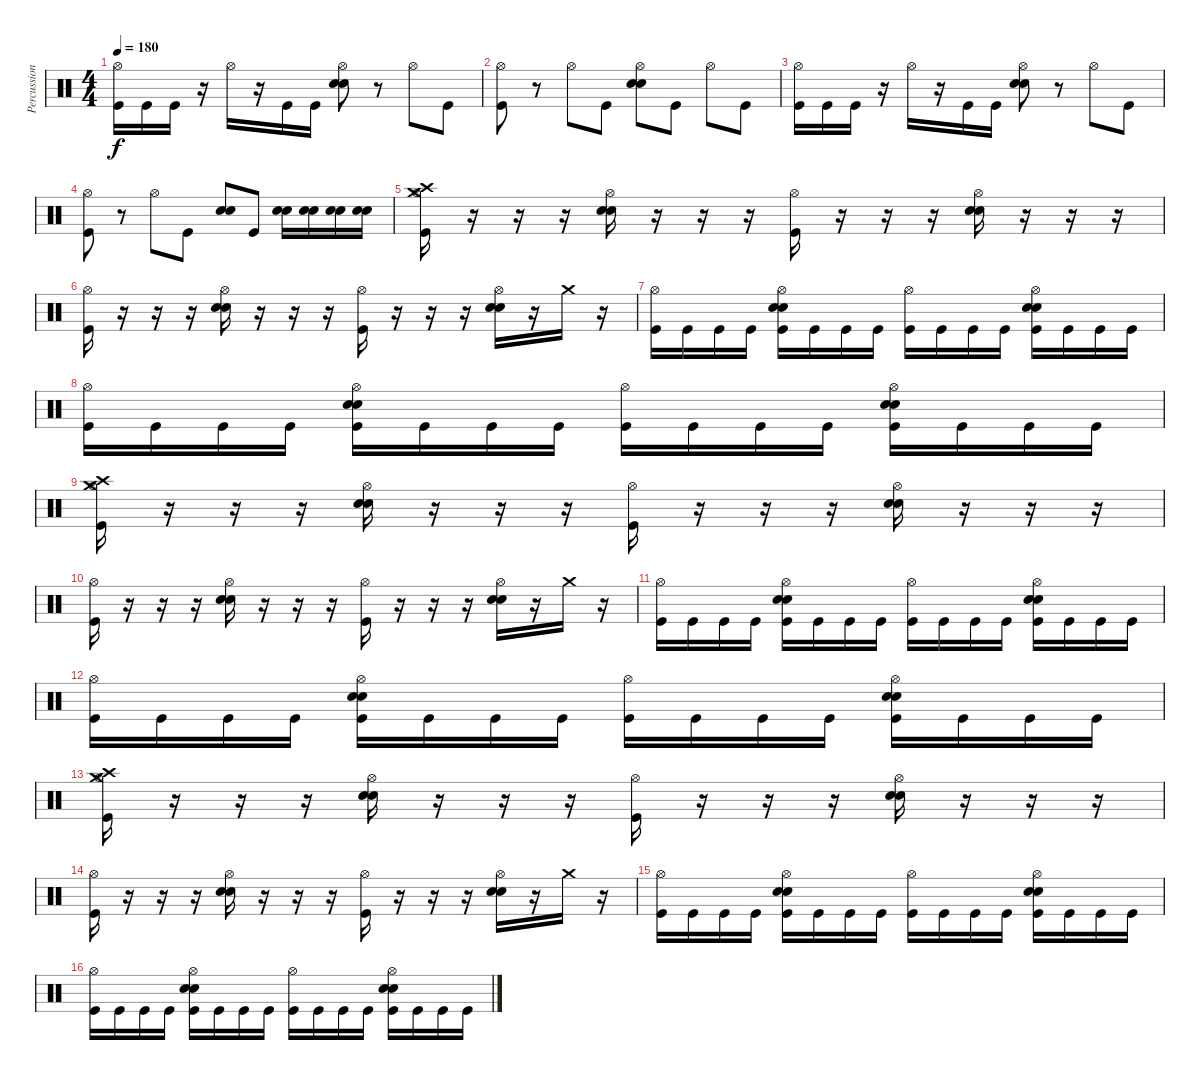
\track ("Percussion" "Percussion") {instrument percussion}
\staff {score}
\articulation defaults
\ts (4 4)
\tempo 180
\clef neutral
\ks c
("Hi-Hat (open)" "Kick (hit)").16{dy f} "Kick (hit)".16 "Kick (hit)".16 r.16 "Hi-Hat (open)".16 r.16 "Kick (hit)".16 "Kick (hit)".16 ("Hi-Hat (open)" "Snare (hit) 2" "Electric Snare (hit)").8 r.8 "Hi-Hat (open)".8 "Kick (hit)".8 |
("Hi-Hat (open)" "Kick (hit)").8 r.8 "Hi-Hat (open)".8 "Kick (hit)".8 ("Hi-Hat (open)" "Snare (hit) 2" "Electric Snare (hit)").8 "Kick (hit)".8 "Hi-Hat (open)".8 "Kick (hit)".8 |
("Hi-Hat (open)" "Kick (hit)").16 "Kick (hit)".16 "Kick (hit)".16 r.16 "Hi-Hat (open)".16 r.16 "Kick (hit)".16 "Kick (hit)".16 ("Hi-Hat (open)" "Snare (hit) 2" "Electric Snare (hit)").8 r.8 "Hi-Hat (open)".8 "Kick (hit)".8 |
("Hi-Hat (open)" "Kick (hit)").8 r.8 "Hi-Hat (open)".8 "Kick (hit)".8 ("Snare (hit) 2" "Electric Snare (hit)").8 "Kick (hit)".8 ("Snare (hit) 2" "Electric Snare (hit)").16 ("Snare (hit) 2" "Electric Snare (hit)").16 ("Snare (hit) 2" "Electric Snare (hit)").16 ("Snare (hit) 2" "Electric Snare (hit)").16 |
("Crash high (hit)" "Hi-Hat (open)" "Crash medium (hit)" "Kick (hit)").16 r.16 r.16 r.16 ("Hi-Hat (open)" "Snare (hit) 2" "Electric Snare (hit)").16 r.16 r.16 r.16 ("Hi-Hat (open)" "Kick (hit)").16 r.16 r.16 r.16 ("Hi-Hat (open)" "Snare (hit) 2" "Electric Snare (hit)").16 r.16 r.16 r.16 |
("Hi-Hat (open)" "Kick (hit)").16 r.16 r.16 r.16 ("Hi-Hat (open)" "Snare (hit) 2" "Electric Snare (hit)").16 r.16 r.16 r.16 ("Hi-Hat (open)" "Kick (hit)").16 r.16 r.16 r.16 ("Hi-Hat (open)" "Snare (hit) 2" "Electric Snare (hit)").16 r.16 "Crash medium (hit)".16 r.16 |
("Hi-Hat (open)" "Kick (hit)").16 "Kick (hit)".16 "Kick (hit)".16 "Kick (hit)".16 ("Hi-Hat (open)" "Snare (hit) 2" "Electric Snare (hit)" "Kick (hit)").16 "Kick (hit)".16 "Kick (hit)".16 "Kick (hit)".16 ("Hi-Hat (open)" "Kick (hit)").16 "Kick (hit)".16 "Kick (hit)".16 "Kick (hit)".16 ("Hi-Hat (open)" "Snare (hit) 2" "Electric Snare (hit)" "Kick (hit)").16 "Kick (hit)".16 "Kick (hit)".16 "Kick (hit)".16 |
("Hi-Hat (open)" "Kick (hit)").16 "Kick (hit)".16 "Kick (hit)".16 "Kick (hit)".16 ("Hi-Hat (open)" "Snare (hit) 2" "Electric Snare (hit)" "Kick (hit)").16 "Kick (hit)".16 "Kick (hit)".16 "Kick (hit)".16 ("Hi-Hat (open)" "Kick (hit)").16 "Kick (hit)".16 "Kick (hit)".16 "Kick (hit)".16 ("Hi-Hat (open)" "Snare (hit) 2" "Electric Snare (hit)" "Kick (hit)").16 "Kick (hit)".16 "Kick (hit)".16 "Kick (hit)".16 |
("Crash medium (hit)" "Hi-Hat (open)" "Crash high (hit)" "Kick (hit)").16 r.16 r.16 r.16 ("Hi-Hat (open)" "Snare (hit) 2" "Electric Snare (hit)").16 r.16 r.16 r.16 ("Hi-Hat (open)" "Kick (hit)").16 r.16 r.16 r.16 ("Hi-Hat (open)" "Snare (hit) 2" "Electric Snare (hit)").16 r.16 r.16 r.16 |
("Hi-Hat (open)" "Kick (hit)").16 r.16 r.16 r.16 ("Hi-Hat (open)" "Snare (hit) 2" "Electric Snare (hit)").16 r.16 r.16 r.16 ("Hi-Hat (open)" "Kick (hit)").16 r.16 r.16 r.16 ("Hi-Hat (open)" "Snare (hit) 2" "Electric Snare (hit)").16 r.16 "Crash medium (hit)".16 r.16 |
("Hi-Hat (open)" "Kick (hit)").16 "Kick (hit)".16 "Kick (hit)".16 "Kick (hit)".16 ("Hi-Hat (open)" "Snare (hit) 2" "Electric Snare (hit)" "Kick (hit)").16 "Kick (hit)".16 "Kick (hit)".16 "Kick (hit)".16 ("Hi-Hat (open)" "Kick (hit)").16 "Kick (hit)".16 "Kick (hit)".16 "Kick (hit)".16 ("Hi-Hat (open)" "Snare (hit) 2" "Electric Snare (hit)" "Kick (hit)").16 "Kick (hit)".16 "Kick (hit)".16 "Kick (hit)".16 |
("Hi-Hat (open)" "Kick (hit)").16 "Kick (hit)".16 "Kick (hit)".16 "Kick (hit)".16 ("Hi-Hat (open)" "Snare (hit) 2" "Electric Snare (hit)" "Kick (hit)").16 "Kick (hit)".16 "Kick (hit)".16 "Kick (hit)".16 ("Hi-Hat (open)" "Kick (hit)").16 "Kick (hit)".16 "Kick (hit)".16 "Kick (hit)".16 ("Hi-Hat (open)" "Snare (hit) 2" "Electric Snare (hit)" "Kick (hit)").16 "Kick (hit)".16 "Kick (hit)".16 "Kick (hit)".16 |
("Crash medium (hit)" "Hi-Hat (open)" "Crash high (hit)" "Kick (hit)").16 r.16 r.16 r.16 ("Hi-Hat (open)" "Snare (hit) 2" "Electric Snare (hit)").16 r.16 r.16 r.16 ("Hi-Hat (open)" "Kick (hit)").16 r.16 r.16 r.16 ("Hi-Hat (open)" "Snare (hit) 2" "Electric Snare (hit)").16 r.16 r.16 r.16 |
("Hi-Hat (open)" "Kick (hit)").16 r.16 r.16 r.16 ("Hi-Hat (open)" "Snare (hit) 2" "Electric Snare (hit)").16 r.16 r.16 r.16 ("Hi-Hat (open)" "Kick (hit)").16 r.16 r.16 r.16 ("Hi-Hat (open)" "Snare (hit) 2" "Electric Snare (hit)").16 r.16 "Crash medium (hit)".16 r.16 |
("Hi-Hat (open)" "Kick (hit)").16 "Kick (hit)".16 "Kick (hit)".16 "Kick (hit)".16 ("Hi-Hat (open)" "Snare (hit) 2" "Electric Snare (hit)" "Kick (hit)").16 "Kick (hit)".16 "Kick (hit)".16 "Kick (hit)".16 ("Hi-Hat (open)" "Kick (hit)").16 "Kick (hit)".16 "Kick (hit)".16 "Kick (hit)".16 ("Hi-Hat (open)" "Snare (hit) 2" "Electric Snare (hit)" "Kick (hit)").16 "Kick (hit)".16 "Kick (hit)".16 "Kick (hit)".16 |
("Hi-Hat (open)" "Kick (hit)").16 "Kick (hit)".16 "Kick (hit)".16 "Kick (hit)".16 ("Hi-Hat (open)" "Snare (hit) 2" "Electric Snare (hit)" "Kick (hit)").16 "Kick (hit)".16 "Kick (hit)".16 "Kick (hit)".16 ("Hi-Hat (open)" "Kick (hit)").16 "Kick (hit)".16 "Kick (hit)".16 "Kick (hit)".16 ("Hi-Hat (open)" "Snare (hit) 2" "Electric Snare (hit)" "Kick (hit)").16 "Kick (hit)".16 "Kick (hit)".16 "Kick (hit)".16
